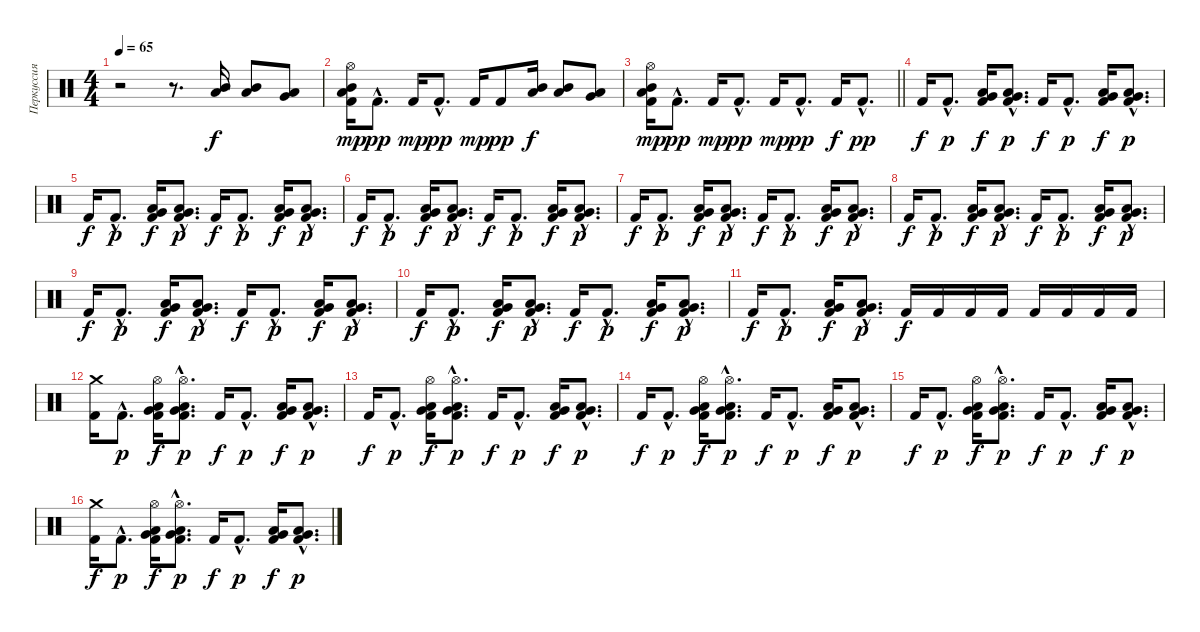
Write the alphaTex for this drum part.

\track ("Перкуссия" "Перкуссия") {instrument percussion}
\staff {score}
\articulation defaults
\ts (4 4)
\tempo 65
\clef neutral
\ks c
r.2{dy f} r.8{d} ("Mid Tom (hit)" "Low Tom (hit)").16 ("Mid Tom (hit)" "Low Tom (hit)").8 ("Low Tom (hit)" "Very Low Tom (hit)").8 |
("Kick (hit) 2" "Mid Tom (hit)" "Low Tom (hit)" "Hi-Hat (open)").16{dy mp} "Kick (hit) 2"{hac}.8{d dy pp} "Kick (hit) 2".16{dy mp} "Kick (hit) 2"{hac}.8{d dy pp} "Kick (hit) 2".16{dy mp} "Kick (hit) 2".8{dy pp} ("Mid Tom (hit)" "Low Tom (hit)").16{dy f} ("Mid Tom (hit)" "Low Tom (hit)").8 ("Low Tom (hit)" "Very Low Tom (hit)").8 |
\barLineRight lightlight
("Kick (hit) 2" "Mid Tom (hit)" "Low Tom (hit)" "Hi-Hat (open)").16{dy mp} "Kick (hit) 2"{hac}.8{d dy pp} "Kick (hit) 2".16{dy mp} "Kick (hit) 2"{hac}.8{d dy pp} "Kick (hit) 2".16{dy mp} "Kick (hit) 2"{hac}.8{d dy pp} "Kick (hit) 2".16{dy f} "Kick (hit) 2"{hac}.8{d dy pp} |
"Kick (hit) 2".16{dy f} "Kick (hit) 2"{hac}.8{d dy p} ("Kick (hit) 2" "Low Tom (hit)" "Very Low Tom (hit)").16{dy f} ("Kick (hit) 2"{hac} "Low Tom (hit)"{hac} "Very Low Tom (hit)"{hac}).8{d dy p} "Kick (hit) 2".16{dy f} "Kick (hit) 2"{hac}.8{d dy p} ("Kick (hit) 2" "Low Tom (hit)" "Very Low Tom (hit)").16{dy f} ("Kick (hit) 2"{hac} "Low Tom (hit)"{hac} "Very Low Tom (hit)"{hac}).8{d dy p} |
"Kick (hit) 2".16{dy f} "Kick (hit) 2"{hac}.8{d dy p} ("Kick (hit) 2" "Low Tom (hit)" "Very Low Tom (hit)").16{dy f} ("Kick (hit) 2"{hac} "Low Tom (hit)"{hac} "Very Low Tom (hit)"{hac}).8{d dy p} "Kick (hit) 2".16{dy f} "Kick (hit) 2"{hac}.8{d dy p} ("Kick (hit) 2" "Low Tom (hit)" "Very Low Tom (hit)").16{dy f} ("Kick (hit) 2"{hac} "Low Tom (hit)"{hac} "Very Low Tom (hit)"{hac}).8{d dy p} |
"Kick (hit) 2".16{dy f} "Kick (hit) 2"{hac}.8{d dy p} ("Kick (hit) 2" "Low Tom (hit)" "Very Low Tom (hit)").16{dy f} ("Kick (hit) 2"{hac} "Low Tom (hit)"{hac} "Very Low Tom (hit)"{hac}).8{d dy p} "Kick (hit) 2".16{dy f} "Kick (hit) 2"{hac}.8{d dy p} ("Kick (hit) 2" "Low Tom (hit)" "Very Low Tom (hit)").16{dy f} ("Kick (hit) 2"{hac} "Low Tom (hit)"{hac} "Very Low Tom (hit)"{hac}).8{d dy p} |
"Kick (hit) 2".16{dy f} "Kick (hit) 2"{hac}.8{d dy p} ("Kick (hit) 2" "Low Tom (hit)" "Very Low Tom (hit)").16{dy f} ("Kick (hit) 2"{hac} "Low Tom (hit)"{hac} "Very Low Tom (hit)"{hac}).8{d dy p} "Kick (hit) 2".16{dy f} "Kick (hit) 2"{hac}.8{d dy p} ("Kick (hit) 2" "Low Tom (hit)" "Very Low Tom (hit)").16{dy f} ("Kick (hit) 2"{hac} "Low Tom (hit)"{hac} "Very Low Tom (hit)"{hac}).8{d dy p} |
"Kick (hit) 2".16{dy f} "Kick (hit) 2"{hac}.8{d dy p} ("Kick (hit) 2" "Low Tom (hit)" "Very Low Tom (hit)").16{dy f} ("Kick (hit) 2"{hac} "Low Tom (hit)"{hac} "Very Low Tom (hit)"{hac}).8{d dy p} "Kick (hit) 2".16{dy f} "Kick (hit) 2"{hac}.8{d dy p} ("Kick (hit) 2" "Low Tom (hit)" "Very Low Tom (hit)").16{dy f} ("Kick (hit) 2"{hac} "Low Tom (hit)"{hac} "Very Low Tom (hit)"{hac}).8{d dy p} |
"Kick (hit) 2".16{dy f} "Kick (hit) 2"{hac}.8{d dy p} ("Kick (hit) 2" "Low Tom (hit)" "Very Low Tom (hit)").16{dy f} ("Kick (hit) 2"{hac} "Low Tom (hit)"{hac} "Very Low Tom (hit)"{hac}).8{d dy p} "Kick (hit) 2".16{dy f} "Kick (hit) 2"{hac}.8{d dy p} ("Kick (hit) 2" "Low Tom (hit)" "Very Low Tom (hit)").16{dy f} ("Kick (hit) 2"{hac} "Low Tom (hit)"{hac} "Very Low Tom (hit)"{hac}).8{d dy p} |
"Kick (hit) 2".16{dy f} "Kick (hit) 2"{hac}.8{d dy p} ("Kick (hit) 2" "Low Tom (hit)" "Very Low Tom (hit)").16{dy f} ("Kick (hit) 2"{hac} "Low Tom (hit)"{hac} "Very Low Tom (hit)"{hac}).8{d dy p} "Kick (hit) 2".16{dy f} "Kick (hit) 2"{hac}.8{d dy p} ("Kick (hit) 2" "Low Tom (hit)" "Very Low Tom (hit)").16{dy f} ("Kick (hit) 2"{hac} "Low Tom (hit)"{hac} "Very Low Tom (hit)"{hac}).8{d dy p} |
"Kick (hit) 2".16{dy f} "Kick (hit) 2"{hac}.8{d dy p} ("Kick (hit) 2" "Low Tom (hit)" "Very Low Tom (hit)").16{dy f} ("Kick (hit) 2"{hac} "Low Tom (hit)"{hac} "Very Low Tom (hit)"{hac}).8{d dy p} "Kick (hit) 2".16{dy f} "Kick (hit) 2".16 "Kick (hit) 2".16 "Kick (hit) 2".16 "Kick (hit) 2".16 "Kick (hit) 2".16 "Kick (hit) 2".16 "Kick (hit) 2".16 |
("Kick (hit) 2" "Crash medium (hit)").16 "Kick (hit) 2"{hac}.8{d dy p} ("Kick (hit) 2" "Low Tom (hit)" "Very Low Tom (hit)" "Hi-Hat (open)").16{dy f} ("Kick (hit) 2"{hac} "Low Tom (hit)"{hac} "Very Low Tom (hit)"{hac} "Hi-Hat (open)"{hac}).8{d dy p} "Kick (hit) 2".16{dy f} "Kick (hit) 2"{hac}.8{d dy p} ("Kick (hit) 2" "Low Tom (hit)" "Very Low Tom (hit)").16{dy f} ("Kick (hit) 2"{hac} "Low Tom (hit)"{hac} "Very Low Tom (hit)"{hac}).8{d dy p} |
"Kick (hit) 2".16{dy f} "Kick (hit) 2"{hac}.8{d dy p} ("Kick (hit) 2" "Low Tom (hit)" "Very Low Tom (hit)" "Hi-Hat (open)").16{dy f} ("Kick (hit) 2"{hac} "Low Tom (hit)"{hac} "Very Low Tom (hit)"{hac} "Hi-Hat (open)"{hac}).8{d dy p} "Kick (hit) 2".16{dy f} "Kick (hit) 2"{hac}.8{d dy p} ("Kick (hit) 2" "Low Tom (hit)" "Very Low Tom (hit)").16{dy f} ("Kick (hit) 2"{hac} "Low Tom (hit)"{hac} "Very Low Tom (hit)"{hac}).8{d dy p} |
"Kick (hit) 2".16{dy f} "Kick (hit) 2"{hac}.8{d dy p} ("Kick (hit) 2" "Low Tom (hit)" "Very Low Tom (hit)" "Hi-Hat (open)").16{dy f} ("Kick (hit) 2"{hac} "Low Tom (hit)"{hac} "Very Low Tom (hit)"{hac} "Hi-Hat (open)"{hac}).8{d dy p} "Kick (hit) 2".16{dy f} "Kick (hit) 2"{hac}.8{d dy p} ("Kick (hit) 2" "Low Tom (hit)" "Very Low Tom (hit)").16{dy f} ("Kick (hit) 2"{hac} "Low Tom (hit)"{hac} "Very Low Tom (hit)"{hac}).8{d dy p} |
"Kick (hit) 2".16{dy f} "Kick (hit) 2"{hac}.8{d dy p} ("Kick (hit) 2" "Low Tom (hit)" "Very Low Tom (hit)" "Hi-Hat (open)").16{dy f} ("Kick (hit) 2"{hac} "Low Tom (hit)"{hac} "Very Low Tom (hit)"{hac} "Hi-Hat (open)"{hac}).8{d dy p} "Kick (hit) 2".16{dy f} "Kick (hit) 2"{hac}.8{d dy p} ("Kick (hit) 2" "Low Tom (hit)" "Very Low Tom (hit)").16{dy f} ("Kick (hit) 2"{hac} "Low Tom (hit)"{hac} "Very Low Tom (hit)"{hac}).8{d dy p} |
("Kick (hit) 2" "Crash medium (hit)").16{dy f} "Kick (hit) 2"{hac}.8{d dy p} ("Kick (hit) 2" "Low Tom (hit)" "Very Low Tom (hit)" "Hi-Hat (open)").16{dy f} ("Kick (hit) 2"{hac} "Low Tom (hit)"{hac} "Very Low Tom (hit)"{hac} "Hi-Hat (open)"{hac}).8{d dy p} "Kick (hit) 2".16{dy f} "Kick (hit) 2"{hac}.8{d dy p} ("Kick (hit) 2" "Low Tom (hit)" "Very Low Tom (hit)").16{dy f} ("Kick (hit) 2"{hac} "Low Tom (hit)"{hac} "Very Low Tom (hit)"{hac}).8{d dy p}
